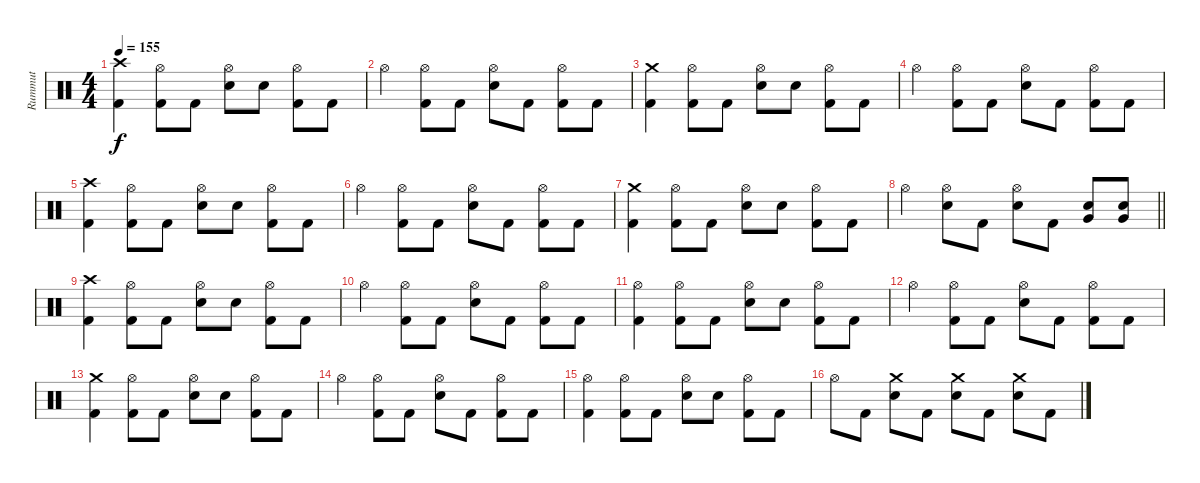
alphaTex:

\track ("Rummut" "Rummut") {instrument percussion}
\staff {score}
\articulation defaults
\ts (4 4)
\tempo 155
\clef neutral
\ks c
("Crash high (hit)" "Kick (hit) 2").4{dy f} ("Hi-Hat (open)" "Kick (hit) 2").8 "Kick (hit) 2".8 ("Hi-Hat (open)" "Electric Snare (hit)").8 "Electric Snare (hit)".8 ("Hi-Hat (open)" "Kick (hit) 2").8 "Kick (hit) 2".8 |
"Hi-Hat (open)".4 ("Hi-Hat (open)" "Kick (hit) 2").8 "Kick (hit) 2".8 ("Hi-Hat (open)" "Electric Snare (hit)").8 "Kick (hit) 2".8 ("Hi-Hat (open)" "Kick (hit) 2").8 "Kick (hit) 2".8 |
("Crash medium (hit)" "Kick (hit) 2").4 ("Hi-Hat (open)" "Kick (hit) 2").8 "Kick (hit) 2".8 ("Hi-Hat (open)" "Electric Snare (hit)").8 "Electric Snare (hit)".8 ("Hi-Hat (open)" "Kick (hit) 2").8 "Kick (hit) 2".8 |
"Hi-Hat (open)".4 ("Hi-Hat (open)" "Kick (hit) 2").8 "Kick (hit) 2".8 ("Hi-Hat (open)" "Electric Snare (hit)").8 "Kick (hit) 2".8 ("Hi-Hat (open)" "Kick (hit) 2").8 "Kick (hit) 2".8 |
("Crash high (hit)" "Kick (hit) 2").4 ("Hi-Hat (open)" "Kick (hit) 2").8 "Kick (hit) 2".8 ("Hi-Hat (open)" "Electric Snare (hit)").8 "Electric Snare (hit)".8 ("Hi-Hat (open)" "Kick (hit) 2").8 "Kick (hit) 2".8 |
"Hi-Hat (open)".4 ("Hi-Hat (open)" "Kick (hit) 2").8 "Kick (hit) 2".8 ("Hi-Hat (open)" "Electric Snare (hit)").8 "Kick (hit) 2".8 ("Hi-Hat (open)" "Kick (hit) 2").8 "Kick (hit) 2".8 |
("Crash medium (hit)" "Kick (hit) 2").4 ("Hi-Hat (open)" "Kick (hit) 2").8 "Kick (hit) 2".8 ("Hi-Hat (open)" "Electric Snare (hit)").8 "Electric Snare (hit)".8 ("Hi-Hat (open)" "Kick (hit) 2").8 "Kick (hit) 2".8 |
\barLineRight lightlight "Hi-Hat (open)".4
("Hi-Hat (open)" "Electric Snare (hit)").8 "Kick (hit) 2".8 ("Hi-Hat (open)" "Electric Snare (hit)").8 "Kick (hit) 2".8 ("Very Low Tom (hit)" "Electric Snare (hit)").8 ("Very Low Tom (hit)" "Electric Snare (hit)").8 |
\section ("" "")
("Crash high (hit)" "Kick (hit) 2").4 ("Hi-Hat (open)" "Kick (hit) 2").8 "Kick (hit) 2".8 ("Hi-Hat (open)" "Electric Snare (hit)").8 "Electric Snare (hit)".8 ("Hi-Hat (open)" "Kick (hit) 2").8 "Kick (hit) 2".8 |
"Hi-Hat (open)".4 ("Hi-Hat (open)" "Kick (hit) 2").8 "Kick (hit) 2".8 ("Hi-Hat (open)" "Electric Snare (hit)").8 "Kick (hit) 2".8 ("Hi-Hat (open)" "Kick (hit) 2").8 "Kick (hit) 2".8 |
("Hi-Hat (open)" "Kick (hit) 2").4 ("Hi-Hat (open)" "Kick (hit) 2").8 "Kick (hit) 2".8 ("Hi-Hat (open)" "Electric Snare (hit)").8 "Electric Snare (hit)".8 ("Hi-Hat (open)" "Kick (hit) 2").8 "Kick (hit) 2".8 |
"Hi-Hat (open)".4 ("Hi-Hat (open)" "Kick (hit) 2").8 "Kick (hit) 2".8 ("Hi-Hat (open)" "Electric Snare (hit)").8 "Kick (hit) 2".8 ("Hi-Hat (open)" "Kick (hit) 2").8 "Kick (hit) 2".8 |
("Crash medium (hit)" "Kick (hit) 2").4 ("Hi-Hat (open)" "Kick (hit) 2").8 "Kick (hit) 2".8 ("Hi-Hat (open)" "Electric Snare (hit)").8 "Electric Snare (hit)".8 ("Hi-Hat (open)" "Kick (hit) 2").8 "Kick (hit) 2".8 |
"Hi-Hat (open)".4 ("Hi-Hat (open)" "Kick (hit) 2").8 "Kick (hit) 2".8 ("Hi-Hat (open)" "Electric Snare (hit)").8 "Kick (hit) 2".8 ("Hi-Hat (open)" "Kick (hit) 2").8 "Kick (hit) 2".8 |
("Hi-Hat (open)" "Kick (hit) 2").4 ("Hi-Hat (open)" "Kick (hit) 2").8 "Kick (hit) 2".8 ("Hi-Hat (open)" "Electric Snare (hit)").8 "Electric Snare (hit)".8 ("Hi-Hat (open)" "Kick (hit) 2").8 "Kick (hit) 2".8 |
"Hi-Hat (open)".8 "Kick (hit) 2".8 ("Crash medium (hit)" "Electric Snare (hit)").8 "Kick (hit) 2".8 ("Crash medium (hit)" "Electric Snare (hit)").8 "Kick (hit) 2".8 ("Crash medium (hit)" "Electric Snare (hit)").8 "Kick (hit) 2".8
